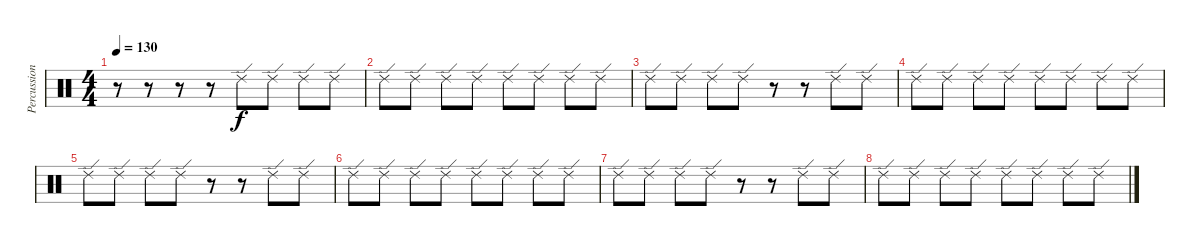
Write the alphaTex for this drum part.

\track ("Percussion" "Percussion") {instrument percussion}
\staff {score}
\articulation defaults
\ts (4 4)
\tempo 130
\clef neutral
\ks c
r.8{dy f} r.8 r.8 r.8 "Ride (edge) 2".8 "Ride (edge) 2".8 "Ride (edge) 2".8 "Ride (edge) 2".8 |
"Ride (edge) 2".8 "Ride (edge) 2".8 "Ride (edge) 2".8 "Ride (edge) 2".8 "Ride (edge) 2".8 "Ride (edge) 2".8 "Ride (edge) 2".8 "Ride (edge) 2".8 |
"Ride (edge) 2".8 "Ride (edge) 2".8 "Ride (edge) 2".8 "Ride (edge) 2".8 r.8 r.8 "Ride (edge) 2".8 "Ride (edge) 2".8 |
"Ride (edge) 2".8 "Ride (edge) 2".8 "Ride (edge) 2".8 "Ride (edge) 2".8 "Ride (edge) 2".8 "Ride (edge) 2".8 "Ride (edge) 2".8 "Ride (edge) 2".8 |
"Ride (edge) 2".8 "Ride (edge) 2".8 "Ride (edge) 2".8 "Ride (edge) 2".8 r.8 r.8 "Ride (edge) 2".8 "Ride (edge) 2".8 |
"Ride (edge) 2".8 "Ride (edge) 2".8 "Ride (edge) 2".8 "Ride (edge) 2".8 "Ride (edge) 2".8 "Ride (edge) 2".8 "Ride (edge) 2".8 "Ride (edge) 2".8 |
"Ride (edge) 2".8 "Ride (edge) 2".8 "Ride (edge) 2".8 "Ride (edge) 2".8 r.8 r.8 "Ride (edge) 2".8 "Ride (edge) 2".8 |
"Ride (edge) 2".8 "Ride (edge) 2".8 "Ride (edge) 2".8 "Ride (edge) 2".8 "Ride (edge) 2".8 "Ride (edge) 2".8 "Ride (edge) 2".8 "Ride (edge) 2".8
